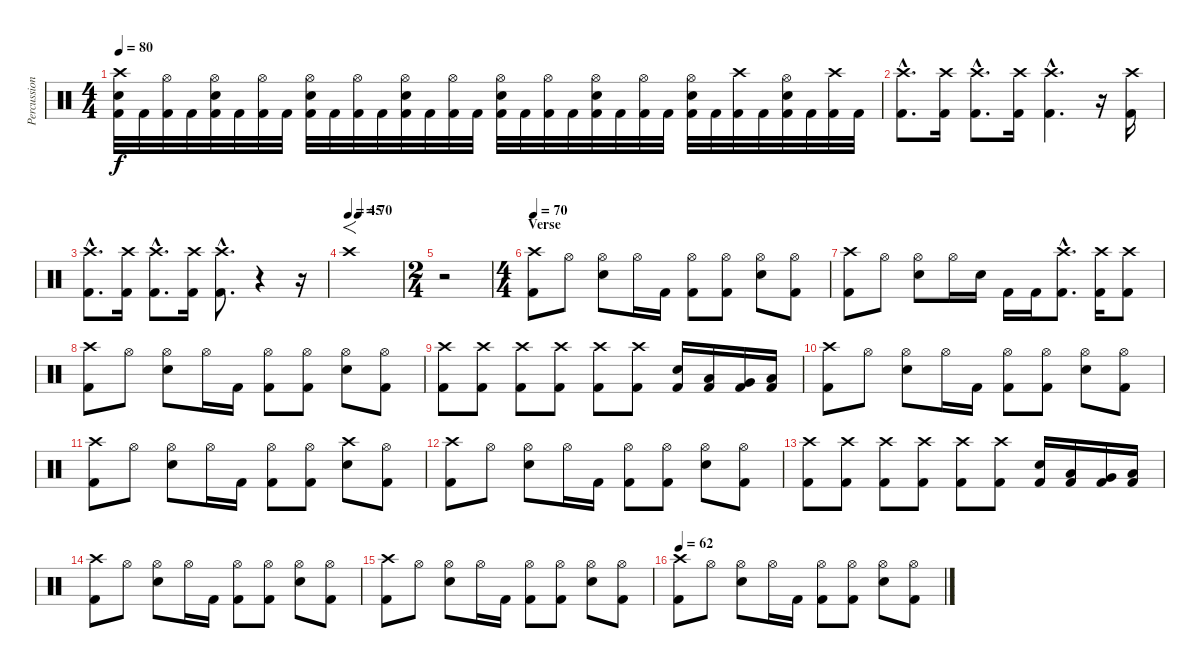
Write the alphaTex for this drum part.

\track ("Percussions" "Percussion") {instrument percussion}
\staff {score}
\articulation defaults
\ts (4 4)
\tempo 80
\clef neutral
\ks c
("Crash high (hit)" "Electric Snare (hit)" "Kick (hit) 2").32{dy f} "Kick (hit) 2".32 ("Hi-Hat (open)" "Kick (hit) 2").32 "Kick (hit) 2".32 ("Hi-Hat (open)" "Electric Snare (hit)" "Kick (hit) 2").32 "Kick (hit) 2".32 ("Hi-Hat (open)" "Kick (hit) 2").32 "Kick (hit) 2".32 ("Hi-Hat (open)" "Electric Snare (hit)" "Kick (hit) 2").32 "Kick (hit) 2".32 ("Hi-Hat (open)" "Kick (hit) 2").32 "Kick (hit) 2".32 ("Hi-Hat (open)" "Electric Snare (hit)" "Kick (hit) 2").32 "Kick (hit) 2".32 ("Hi-Hat (open)" "Kick (hit) 2").32 "Kick (hit) 2".32 ("Hi-Hat (open)" "Electric Snare (hit)" "Kick (hit) 2").32 "Kick (hit) 2".32 ("Hi-Hat (open)" "Kick (hit) 2").32 "Kick (hit) 2".32 ("Hi-Hat (open)" "Electric Snare (hit)" "Kick (hit) 2").32 "Kick (hit) 2".32 ("Hi-Hat (open)" "Kick (hit) 2").32 "Kick (hit) 2".32 ("Hi-Hat (open)" "Electric Snare (hit)" "Kick (hit) 2").32 "Kick (hit) 2".32 ("Crash high (hit)" "Kick (hit) 2").32 "Kick (hit) 2".32 ("Hi-Hat (open)" "Electric Snare (hit)" "Kick (hit) 2").32 "Kick (hit) 2".32 ("Crash high (hit)" "Kick (hit) 2").32 "Kick (hit) 2".32 |
("Crash high (hit)"{hac} "Kick (hit) 2"{hac}).8{d} ("Crash high (hit)" "Kick (hit) 2").16 ("Crash high (hit)"{hac} "Kick (hit) 2"{hac}).8{d} ("Crash high (hit)" "Kick (hit) 2").16 ("Crash high (hit)"{hac} "Kick (hit) 2"{hac}).4{d} r.16 ("Crash high (hit)" "Kick (hit) 2").16 |
("Crash high (hit)"{hac} "Kick (hit) 2"{hac}).8{d} ("Crash high (hit)" "Kick (hit) 2").16 ("Crash high (hit)"{hac} "Kick (hit) 2"{hac}).8{d} ("Crash high (hit)" "Kick (hit) 2").16 ("Crash high (hit)"{hac} "Kick (hit) 2"{hac}).8{d} r.4 r.16 |
\tempo 45
\tempo (70 0.1875)
"Crash high (hit)"{tr (49 64)}.1{f} |
\ts (2 4)
r.2 |
\ts (4 4)
\section ("" "Verse")
\tempo 70
("Crash high (hit)" "Kick (hit) 2").8 "Hi-Hat (open)".8 ("Hi-Hat (open)" "Electric Snare (hit)").8 "Hi-Hat (open)".16 "Kick (hit) 2".16 ("Hi-Hat (open)" "Kick (hit) 2").8 ("Hi-Hat (open)" "Kick (hit) 2").8 ("Hi-Hat (open)" "Electric Snare (hit)").8 ("Hi-Hat (open)" "Kick (hit) 2").8 |
("Crash high (hit)" "Kick (hit) 2").8 "Hi-Hat (open)".8 ("Hi-Hat (open)" "Electric Snare (hit)").8 "Hi-Hat (open)".16 "Electric Snare (hit)".16 "Kick (hit) 2".16 "Kick (hit) 2".16 ("Crash high (hit)"{hac} "Kick (hit) 2"{hac}).8{d} ("Crash high (hit)" "Kick (hit) 2").16 ("Crash high (hit)" "Kick (hit) 2").8 |
("Crash high (hit)" "Kick (hit) 2").8 "Hi-Hat (open)".8 ("Hi-Hat (open)" "Electric Snare (hit)").8 "Hi-Hat (open)".16 "Kick (hit) 2".16 ("Hi-Hat (open)" "Kick (hit) 2").8 ("Hi-Hat (open)" "Kick (hit) 2").8 ("Hi-Hat (open)" "Electric Snare (hit)").8 ("Hi-Hat (open)" "Kick (hit) 2").8 |
("Crash high (hit)" "Kick (hit) 2").8 ("Crash high (hit)" "Kick (hit) 2").8 ("Crash high (hit)" "Kick (hit) 2").8 ("Crash high (hit)" "Kick (hit) 2").8 ("Crash high (hit)" "Kick (hit) 2").8 ("Crash high (hit)" "Kick (hit) 2").8 ("Electric Snare (hit)" "Kick (hit) 2").16 ("Low Tom (hit)" "Kick (hit) 2").16 ("Very Low Tom (hit)" "Kick (hit) 2").16 ("Low Floor Tom (hit)" "Kick (hit) 2").16 |
("Crash high (hit)" "Kick (hit) 2").8 "Hi-Hat (open)".8 ("Hi-Hat (open)" "Electric Snare (hit)").8 "Hi-Hat (open)".16 "Kick (hit) 2".16 ("Hi-Hat (open)" "Kick (hit) 2").8 ("Hi-Hat (open)" "Kick (hit) 2").8 ("Hi-Hat (open)" "Electric Snare (hit)").8 ("Hi-Hat (open)" "Kick (hit) 2").8 |
("Crash high (hit)" "Kick (hit) 2").8 "Hi-Hat (open)".8 ("Hi-Hat (open)" "Electric Snare (hit)").8 "Hi-Hat (open)".16 "Kick (hit) 2".16 ("Hi-Hat (open)" "Kick (hit) 2").8 ("Hi-Hat (open)" "Kick (hit) 2").8 ("Crash high (hit)" "Electric Snare (hit)").8 ("Hi-Hat (open)" "Kick (hit) 2").8 |
("Crash high (hit)" "Kick (hit) 2").8 "Hi-Hat (open)".8 ("Hi-Hat (open)" "Electric Snare (hit)").8 "Hi-Hat (open)".16 "Kick (hit) 2".16 ("Hi-Hat (open)" "Kick (hit) 2").8 ("Hi-Hat (open)" "Kick (hit) 2").8 ("Hi-Hat (open)" "Electric Snare (hit)").8 ("Hi-Hat (open)" "Kick (hit) 2").8 |
("Crash high (hit)" "Kick (hit) 2").8 ("Crash high (hit)" "Kick (hit) 2").8 ("Crash high (hit)" "Kick (hit) 2").8 ("Crash high (hit)" "Kick (hit) 2").8 ("Crash high (hit)" "Kick (hit) 2").8 ("Crash high (hit)" "Kick (hit) 2").8 ("Electric Snare (hit)" "Kick (hit) 2").16 ("Low Tom (hit)" "Kick (hit) 2").16 ("Very Low Tom (hit)" "Kick (hit) 2").16 ("Low Floor Tom (hit)" "Kick (hit) 2").16 |
("Crash high (hit)" "Kick (hit) 2").8 "Hi-Hat (open)".8 ("Hi-Hat (open)" "Electric Snare (hit)").8 "Hi-Hat (open)".16 "Kick (hit) 2".16 ("Hi-Hat (open)" "Kick (hit) 2").8 ("Hi-Hat (open)" "Kick (hit) 2").8 ("Hi-Hat (open)" "Electric Snare (hit)").8 ("Hi-Hat (open)" "Kick (hit) 2").8 |
("Crash high (hit)" "Kick (hit) 2").8 "Hi-Hat (open)".8 ("Hi-Hat (open)" "Electric Snare (hit)").8 "Hi-Hat (open)".16 "Kick (hit) 2".16 ("Hi-Hat (open)" "Kick (hit) 2").8 ("Hi-Hat (open)" "Kick (hit) 2").8 ("Hi-Hat (open)" "Electric Snare (hit)").8 ("Hi-Hat (open)" "Kick (hit) 2").8 |
\tempo 62
("Crash high (hit)" "Kick (hit) 2").8 "Hi-Hat (open)".8 ("Hi-Hat (open)" "Electric Snare (hit)").8 "Hi-Hat (open)".16 "Kick (hit) 2".16 ("Hi-Hat (open)" "Kick (hit) 2").8 ("Hi-Hat (open)" "Kick (hit) 2").8 ("Hi-Hat (open)" "Electric Snare (hit)").8 ("Hi-Hat (open)" "Kick (hit) 2").8
